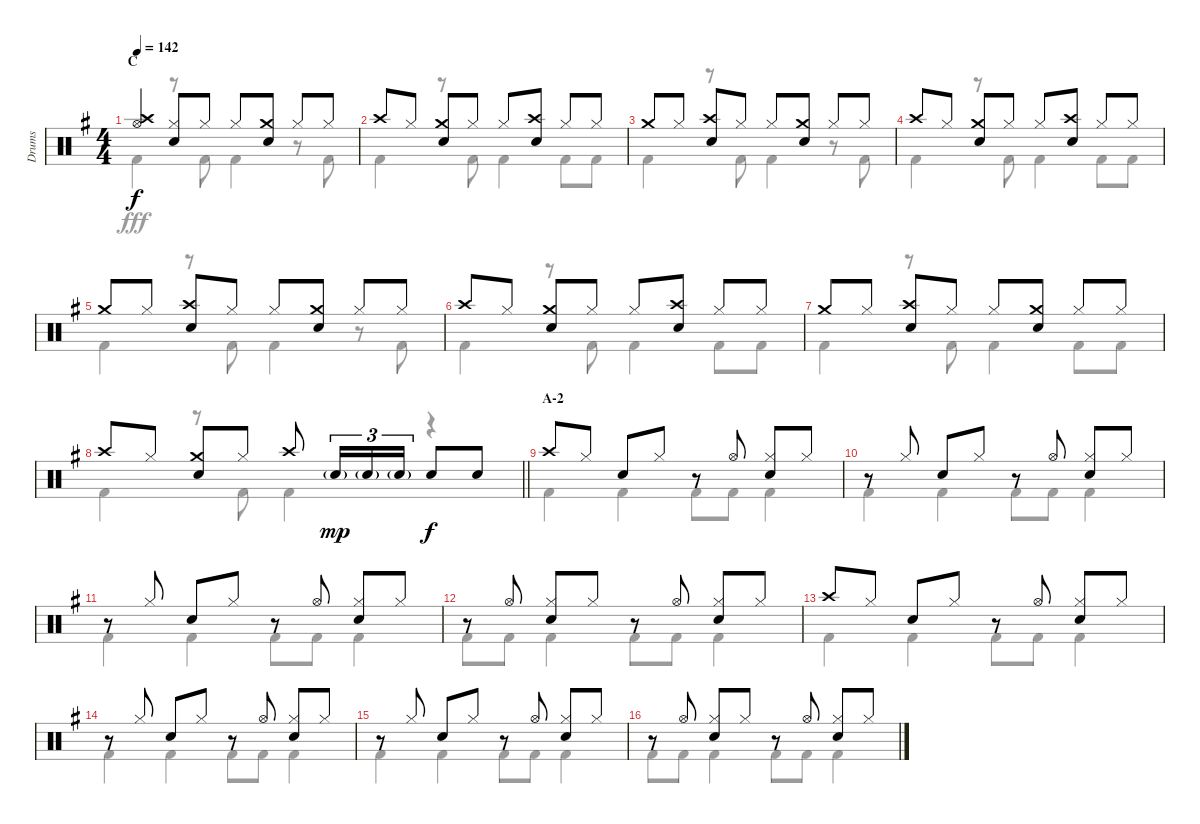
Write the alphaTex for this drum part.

\track ("Drums" "Drums") {instrument percussion}
\staff {score}
\articulation defaults
\voice
\ts (4 4)
\section ("" "C")
\tempo 142
\clef neutral
\ks g
("Crash high (hit)" "Hi-Hat (open)").4{dy f} ("Hi-Hat (closed)" "Snare (hit) 2").8 "Hi-Hat (closed)".8 "Hi-Hat (closed)".8 ("Crash medium (hit)" "Snare (hit) 2").8 "Hi-Hat (closed)".8 "Hi-Hat (closed)".8 |
"Crash high (hit)".8 "Hi-Hat (closed)".8 ("Crash medium (hit)" "Snare (hit) 2").8 "Hi-Hat (closed)".8 "Hi-Hat (closed)".8 ("Crash high (hit)" "Snare (hit) 2").8 "Hi-Hat (closed)".8 "Hi-Hat (closed)".8 |
"Crash medium (hit)".8 "Hi-Hat (closed)".8 ("Crash high (hit)" "Snare (hit) 2").8 "Hi-Hat (closed)".8 "Hi-Hat (closed)".8 ("Crash medium (hit)" "Snare (hit) 2").8 "Hi-Hat (closed)".8 "Hi-Hat (closed)".8 |
"Crash high (hit)".8 "Hi-Hat (closed)".8 ("Crash medium (hit)" "Snare (hit) 2").8 "Hi-Hat (closed)".8 "Hi-Hat (closed)".8 ("Crash high (hit)" "Snare (hit) 2").8 "Hi-Hat (closed)".8 "Hi-Hat (closed)".8 |
"Crash medium (hit)".8 "Hi-Hat (closed)".8 ("Crash high (hit)" "Snare (hit) 2").8 "Hi-Hat (closed)".8 "Hi-Hat (closed)".8 ("Crash medium (hit)" "Snare (hit) 2").8 "Hi-Hat (closed)".8 "Hi-Hat (closed)".8 |
"Crash high (hit)".8 "Hi-Hat (closed)".8 ("Crash medium (hit)" "Snare (hit) 2").8 "Hi-Hat (closed)".8 "Hi-Hat (closed)".8 ("Crash high (hit)" "Snare (hit) 2").8 "Hi-Hat (closed)".8 "Hi-Hat (closed)".8 |
"Crash medium (hit)".8 "Hi-Hat (closed)".8 ("Crash high (hit)" "Snare (hit) 2").8 "Hi-Hat (closed)".8 "Hi-Hat (closed)".8 ("Crash medium (hit)" "Snare (hit) 2").8 "Hi-Hat (closed)".8 "Hi-Hat (closed)".8 |
\barLineRight lightlight "Crash high (hit)".8 "Hi-Hat (closed)".8
("Crash medium (hit)" "Snare (hit) 2").8 "Hi-Hat (closed)".8 "Crash high (hit)".8 "Snare (hit) 2"{g}.16{tu (3 2) dy mp} "Snare (hit) 2"{g}.16{tu (3 2)} "Snare (hit) 2"{g}.16{tu (3 2)} "Snare (hit) 2".8{dy f} "Snare (hit) 2".8 |
\section ("" "A-2")
"Crash high (hit)".8 "Hi-Hat (closed)".8 "Snare (hit) 2".8 "Hi-Hat (closed)".8 r.8 "Hi-Hat (open)".8 ("Hi-Hat (closed)" "Snare (hit) 2").8 "Hi-Hat (closed)".8 |
r.8 "Hi-Hat (closed)".8 "Snare (hit) 2".8 "Hi-Hat (closed)".8 r.8 "Hi-Hat (open)".8 ("Hi-Hat (closed)" "Snare (hit) 2").8 "Hi-Hat (closed)".8 |
r.8 "Hi-Hat (closed)".8 "Snare (hit) 2".8 "Hi-Hat (closed)".8 r.8 "Hi-Hat (open)".8 ("Hi-Hat (closed)" "Snare (hit) 2").8 "Hi-Hat (closed)".8 |
r.8 "Hi-Hat (open)".8 ("Hi-Hat (closed)" "Snare (hit) 2").8 "Hi-Hat (closed)".8 r.8 "Hi-Hat (open)".8 ("Hi-Hat (closed)" "Snare (hit) 2").8 "Hi-Hat (closed)".8 |
"Crash high (hit)".8 "Hi-Hat (closed)".8 "Snare (hit) 2".8 "Hi-Hat (closed)".8 r.8 "Hi-Hat (open)".8 ("Hi-Hat (closed)" "Snare (hit) 2").8 "Hi-Hat (closed)".8 |
r.8 "Hi-Hat (closed)".8 "Snare (hit) 2".8 "Hi-Hat (closed)".8 r.8 "Hi-Hat (open)".8 ("Hi-Hat (closed)" "Snare (hit) 2").8 "Hi-Hat (closed)".8 |
r.8 "Hi-Hat (closed)".8 "Snare (hit) 2".8 "Hi-Hat (closed)".8 r.8 "Hi-Hat (open)".8 ("Hi-Hat (closed)" "Snare (hit) 2").8 "Hi-Hat (closed)".8 |
r.8 "Hi-Hat (open)".8 ("Hi-Hat (closed)" "Snare (hit) 2").8 "Hi-Hat (closed)".8 r.8 "Hi-Hat (open)".8 ("Hi-Hat (closed)" "Snare (hit) 2").8 "Hi-Hat (closed)".8
\voice
\clef neutral
\ottava regular
\simile none
\ks g "Kick (hit) 2".4{dy fff}
r.8 "Kick (hit) 2".8 "Kick (hit) 2".4 r.8 "Kick (hit) 2".8 |
"Kick (hit) 2".4 r.8 "Kick (hit) 2".8 "Kick (hit) 2".4 "Kick (hit) 2".8 "Kick (hit) 2".8 |
"Kick (hit) 2".4 r.8 "Kick (hit) 2".8 "Kick (hit) 2".4 r.8 "Kick (hit) 2".8 |
"Kick (hit) 2".4 r.8 "Kick (hit) 2".8 "Kick (hit) 2".4 "Kick (hit) 2".8 "Kick (hit) 2".8 |
"Kick (hit) 2".4 r.8 "Kick (hit) 2".8 "Kick (hit) 2".4 r.8 "Kick (hit) 2".8 |
"Kick (hit) 2".4 r.8 "Kick (hit) 2".8 "Kick (hit) 2".4 "Kick (hit) 2".8 "Kick (hit) 2".8 |
"Kick (hit) 2".4 r.8 "Kick (hit) 2".8 "Kick (hit) 2".4 "Kick (hit) 2".8 "Kick (hit) 2".8 |
\barLineRight lightlight "Kick (hit) 2".4
r.8 "Kick (hit) 2".8 "Kick (hit) 2".4 r.4 |
"Kick (hit) 2".4 "Kick (hit) 2".4 "Kick (hit) 2".8 "Kick (hit) 2".8 "Kick (hit) 2".4 |
"Kick (hit) 2".4 "Kick (hit) 2".4 "Kick (hit) 2".8 "Kick (hit) 2".8 "Kick (hit) 2".4 |
"Kick (hit) 2".4 "Kick (hit) 2".4 "Kick (hit) 2".8 "Kick (hit) 2".8 "Kick (hit) 2".4 |
"Kick (hit) 2".8 "Kick (hit) 2".8 "Kick (hit) 2".4 "Kick (hit) 2".8 "Kick (hit) 2".8 "Kick (hit) 2".4 |
"Kick (hit) 2".4 "Kick (hit) 2".4 "Kick (hit) 2".8 "Kick (hit) 2".8 "Kick (hit) 2".4 |
"Kick (hit) 2".4 "Kick (hit) 2".4 "Kick (hit) 2".8 "Kick (hit) 2".8 "Kick (hit) 2".4 |
"Kick (hit) 2".4 "Kick (hit) 2".4 "Kick (hit) 2".8 "Kick (hit) 2".8 "Kick (hit) 2".4 |
"Kick (hit) 2".8 "Kick (hit) 2".8 "Kick (hit) 2".4 "Kick (hit) 2".8 "Kick (hit) 2".8 "Kick (hit) 2".4
